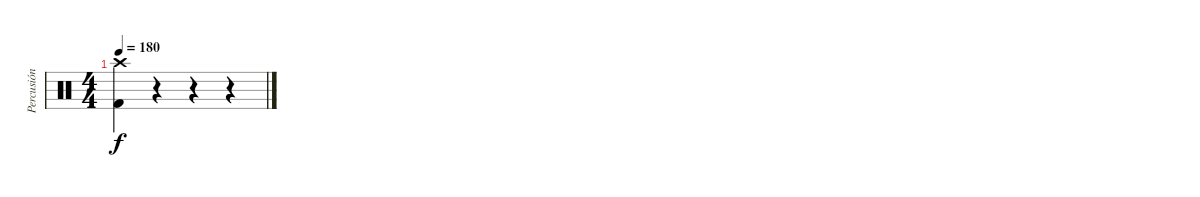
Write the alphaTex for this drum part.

\track ("Percusión" "Percusión") {instrument percussion}
\staff {score}
\articulation defaults
\ts (4 4)
\tempo 180
\clef neutral
\ks c
("Crash high (hit)" "Kick (hit) 2").4{dy f} r.4 r.4 r.4
